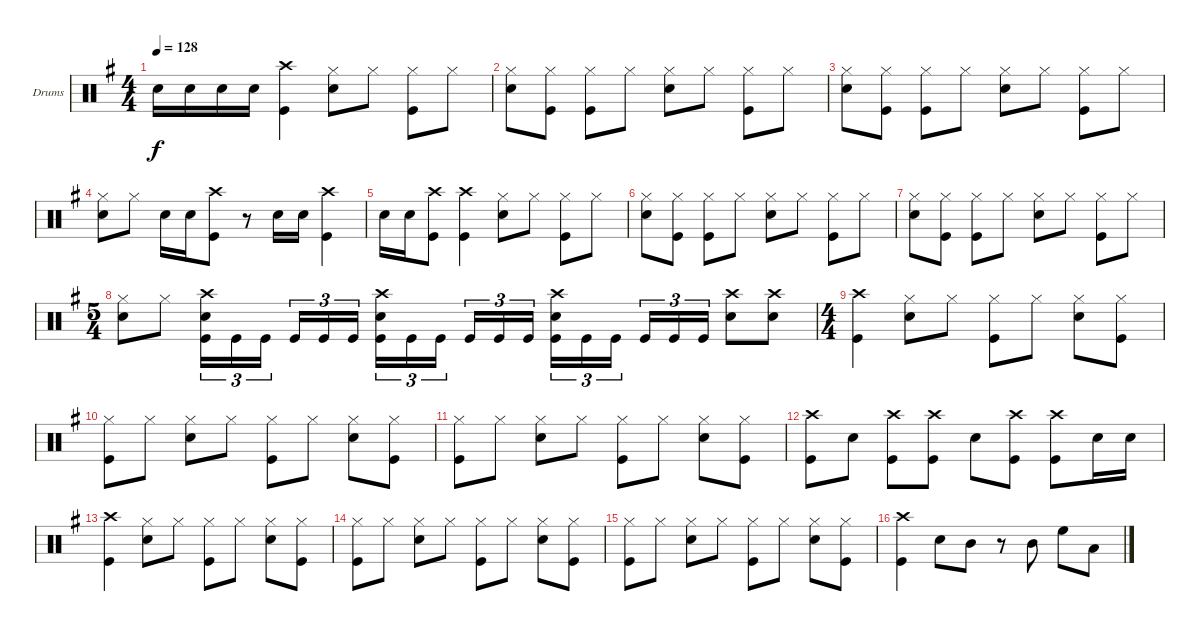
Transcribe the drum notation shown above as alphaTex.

\defaultSystemsLayout 4
\bracketExtendMode groupsimilarinstruments
\firstSystemTrackNameOrientation horizontal
\otherSystemsTrackNameOrientation horizontal
\track ("Drumkit" "Drums") {instrument percussion}
\staff {score}
\articulation defaults
\ts (4 4)
\tempo 128
\clef neutral
\ks g "Snare (hit) 2".16{dy f} "Snare (hit) 2".16 "Snare (hit) 2".16 "Snare (hit) 2".16
("Kick (hit)" "Crash high (hit)").4 ("Snare (hit) 2" "Hi-Hat (closed)").8 "Hi-Hat (closed)".8 ("Kick (hit)" "Hi-Hat (closed)").8 "Hi-Hat (closed)".8 |
("Hi-Hat (closed)" "Snare (hit) 2").8 ("Hi-Hat (closed)" "Kick (hit)").8 ("Hi-Hat (closed)" "Kick (hit)").8 "Hi-Hat (closed)".8 ("Snare (hit) 2" "Hi-Hat (closed)").8 "Hi-Hat (closed)".8 ("Hi-Hat (closed)" "Kick (hit)").8 "Hi-Hat (closed)".8 |
("Hi-Hat (closed)" "Snare (hit) 2").8 ("Hi-Hat (closed)" "Kick (hit)").8 ("Hi-Hat (closed)" "Kick (hit)").8 "Hi-Hat (closed)".8 ("Snare (hit) 2" "Hi-Hat (closed)").8 "Hi-Hat (closed)".8 ("Hi-Hat (closed)" "Kick (hit)").8 "Hi-Hat (closed)".8 |
("Hi-Hat (closed)" "Snare (hit) 2").8 "Hi-Hat (closed)".8 "Snare (hit) 2".16 "Snare (hit) 2".16 ("Kick (hit)" "Crash high (hit)").8 r.8 "Snare (hit) 2".16 "Snare (hit) 2".16 ("Kick (hit)" "Crash high (hit)").4 |
"Snare (hit) 2".16 "Snare (hit) 2".16 ("Kick (hit)" "Crash high (hit)").8 ("Kick (hit)" "Crash high (hit)").4 ("Hi-Hat (closed)" "Snare (hit) 2").8 "Hi-Hat (closed)".8 ("Hi-Hat (closed)" "Kick (hit)").8 "Hi-Hat (closed)".8 |
("Hi-Hat (closed)" "Snare (hit) 2").8 ("Hi-Hat (closed)" "Kick (hit)").8 ("Hi-Hat (closed)" "Kick (hit)").8 "Hi-Hat (closed)".8 ("Snare (hit) 2" "Hi-Hat (closed)").8 "Hi-Hat (closed)".8 ("Hi-Hat (closed)" "Kick (hit)").8 "Hi-Hat (closed)".8 |
("Hi-Hat (closed)" "Snare (hit) 2").8 ("Hi-Hat (closed)" "Kick (hit)").8 ("Hi-Hat (closed)" "Kick (hit)").8 "Hi-Hat (closed)".8 ("Snare (hit) 2" "Hi-Hat (closed)").8 "Hi-Hat (closed)".8 ("Hi-Hat (closed)" "Kick (hit)").8 "Hi-Hat (closed)".8 |
\ts (5 4)
("Snare (hit) 2" "Hi-Hat (closed)").8 "Hi-Hat (closed)".8 ("Snare (hit) 2" "Crash high (hit)" "Kick (hit)").16{tu (3 2)} "Kick (hit)".16{tu (3 2)} "Kick (hit)".16{tu (3 2)} "Kick (hit)".16{tu (3 2)} "Kick (hit)".16{tu (3 2)} "Kick (hit)".16{tu (3 2)} ("Crash high (hit)" "Snare (hit) 2" "Kick (hit)").16{tu (3 2)} "Kick (hit)".16{tu (3 2)} "Kick (hit)".16{tu (3 2)} "Kick (hit)".16{tu (3 2)} "Kick (hit)".16{tu (3 2)} "Kick (hit)".16{tu (3 2)} ("Crash high (hit)" "Snare (hit) 2" "Kick (hit)").16{tu (3 2)} "Kick (hit)".16{tu (3 2)} "Kick (hit)".16{tu (3 2)} "Kick (hit)".16{tu (3 2)} "Kick (hit)".16{tu (3 2)} "Kick (hit)".16{tu (3 2)} ("Crash high (hit)" "Snare (hit) 2").8 ("Crash high (hit)" "Snare (hit) 2").8 |
\ts (4 4)
("Kick (hit)" "Crash high (hit)").4 ("Snare (hit) 2" "Hi-Hat (closed)").8 "Hi-Hat (closed)".8 ("Hi-Hat (closed)" "Kick (hit)").8 "Hi-Hat (closed)".8 ("Snare (hit) 2" "Hi-Hat (closed)").8 ("Kick (hit)" "Hi-Hat (closed)").8 |
("Hi-Hat (closed)" "Kick (hit)").8 "Hi-Hat (closed)".8 ("Snare (hit) 2" "Hi-Hat (closed)").8 "Hi-Hat (closed)".8 ("Hi-Hat (closed)" "Kick (hit)").8 "Hi-Hat (closed)".8 ("Snare (hit) 2" "Hi-Hat (closed)").8 ("Kick (hit)" "Hi-Hat (closed)").8 |
("Hi-Hat (closed)" "Kick (hit)").8 "Hi-Hat (closed)".8 ("Snare (hit) 2" "Hi-Hat (closed)").8 "Hi-Hat (closed)".8 ("Hi-Hat (closed)" "Kick (hit)").8 "Hi-Hat (closed)".8 ("Snare (hit) 2" "Hi-Hat (closed)").8 ("Kick (hit)" "Hi-Hat (closed)").8 |
("Crash high (hit)" "Kick (hit)").8 "Snare (hit) 2".8 ("Kick (hit)" "Crash high (hit)").8 ("Kick (hit)" "Crash high (hit)").8 "Snare (hit) 2".8 ("Crash high (hit)" "Kick (hit)").8 ("Crash high (hit)" "Kick (hit)").8 "Snare (hit) 2".16 "Snare (hit) 2".16 |
("Kick (hit)" "Crash high (hit)").4 ("Snare (hit) 2" "Hi-Hat (closed)").8 "Hi-Hat (closed)".8 ("Hi-Hat (closed)" "Kick (hit)").8 "Hi-Hat (closed)".8 ("Snare (hit) 2" "Hi-Hat (closed)").8 ("Kick (hit)" "Hi-Hat (closed)").8 |
("Hi-Hat (closed)" "Kick (hit)").8 "Hi-Hat (closed)".8 ("Snare (hit) 2" "Hi-Hat (closed)").8 "Hi-Hat (closed)".8 ("Hi-Hat (closed)" "Kick (hit)").8 "Hi-Hat (closed)".8 ("Snare (hit) 2" "Hi-Hat (closed)").8 ("Kick (hit)" "Hi-Hat (closed)").8 |
("Hi-Hat (closed)" "Kick (hit)").8 "Hi-Hat (closed)".8 ("Snare (hit) 2" "Hi-Hat (closed)").8 "Hi-Hat (closed)".8 ("Hi-Hat (closed)" "Kick (hit)").8 "Hi-Hat (closed)".8 ("Snare (hit) 2" "Hi-Hat (closed)").8 ("Kick (hit)" "Hi-Hat (closed)").8 |
("Kick (hit)" "Crash high (hit)").4 "Snare (hit) 2".8 "Mid Tom (hit)".8 r.8 "Mid Tom (hit)".8 "High Floor Tom (hit)".8 "Low Tom (hit)".8
